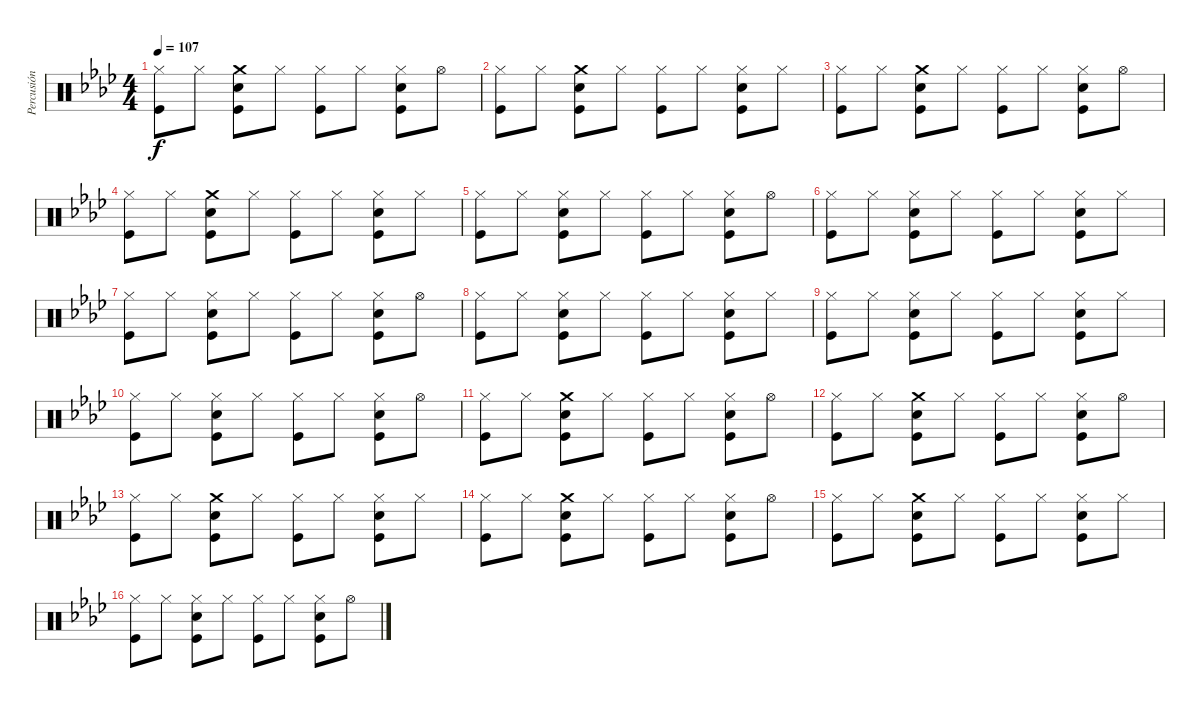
\track ("Percusión" "Percusión") {instrument percussion}
\staff {score}
\articulation defaults
\ts (4 4)
\tempo 107
\clef neutral
\ks ab
("Hi-Hat (closed)" "Kick (hit)").8{dy f} "Hi-Hat (closed)".8 ("Crash medium (hit)" "Snare (hit) 2" "Kick (hit)").8 "Hi-Hat (closed)".8 ("Hi-Hat (closed)" "Kick (hit)").8 "Hi-Hat (closed)".8 ("Hi-Hat (closed)" "Snare (hit) 2" "Kick (hit)").8 "Hi-Hat (open)".8 |
("Hi-Hat (closed)" "Kick (hit)").8 "Hi-Hat (closed)".8 ("Crash medium (hit)" "Snare (hit) 2" "Kick (hit)").8 "Hi-Hat (closed)".8 ("Hi-Hat (closed)" "Kick (hit)").8 "Hi-Hat (closed)".8 ("Hi-Hat (closed)" "Snare (hit) 2" "Kick (hit)").8 "Hi-Hat (closed)".8 |
("Hi-Hat (closed)" "Kick (hit)").8 "Hi-Hat (closed)".8 ("Crash medium (hit)" "Snare (hit) 2" "Kick (hit)").8 "Hi-Hat (closed)".8 ("Hi-Hat (closed)" "Kick (hit)").8 "Hi-Hat (closed)".8 ("Hi-Hat (closed)" "Snare (hit) 2" "Kick (hit)").8 "Hi-Hat (open)".8 |
("Hi-Hat (closed)" "Kick (hit)").8 "Hi-Hat (closed)".8 ("Crash medium (hit)" "Snare (hit) 2" "Kick (hit)").8 "Hi-Hat (closed)".8 ("Hi-Hat (closed)" "Kick (hit)").8 "Hi-Hat (closed)".8 ("Hi-Hat (closed)" "Snare (hit) 2" "Kick (hit)").8 "Hi-Hat (closed)".8 |
("Hi-Hat (closed)" "Kick (hit)").8 "Hi-Hat (closed)".8 ("Hi-Hat (closed)" "Snare (hit) 2" "Kick (hit)").8 "Hi-Hat (closed)".8 ("Hi-Hat (closed)" "Kick (hit)").8 "Hi-Hat (closed)".8 ("Hi-Hat (closed)" "Snare (hit) 2" "Kick (hit)").8 "Hi-Hat (open)".8 |
("Hi-Hat (closed)" "Kick (hit)").8 "Hi-Hat (closed)".8 ("Hi-Hat (closed)" "Snare (hit) 2" "Kick (hit)").8 "Hi-Hat (closed)".8 ("Hi-Hat (closed)" "Kick (hit)").8 "Hi-Hat (closed)".8 ("Hi-Hat (closed)" "Snare (hit) 2" "Kick (hit)").8 "Hi-Hat (closed)".8 |
("Hi-Hat (closed)" "Kick (hit)").8 "Hi-Hat (closed)".8 ("Hi-Hat (closed)" "Snare (hit) 2" "Kick (hit)").8 "Hi-Hat (closed)".8 ("Hi-Hat (closed)" "Kick (hit)").8 "Hi-Hat (closed)".8 ("Hi-Hat (closed)" "Snare (hit) 2" "Kick (hit)").8 "Hi-Hat (open)".8 |
("Hi-Hat (closed)" "Kick (hit)").8 "Hi-Hat (closed)".8 ("Hi-Hat (closed)" "Snare (hit) 2" "Kick (hit)").8 "Hi-Hat (closed)".8 ("Hi-Hat (closed)" "Kick (hit)").8 "Hi-Hat (closed)".8 ("Hi-Hat (closed)" "Snare (hit) 2" "Kick (hit)").8 "Hi-Hat (closed)".8 |
("Hi-Hat (closed)" "Kick (hit)").8 "Hi-Hat (closed)".8 ("Hi-Hat (closed)" "Snare (hit) 2" "Kick (hit)").8 "Hi-Hat (closed)".8 ("Hi-Hat (closed)" "Kick (hit)").8 "Hi-Hat (closed)".8 ("Hi-Hat (closed)" "Snare (hit) 2" "Kick (hit)").8 "Hi-Hat (closed)".8 |
("Hi-Hat (closed)" "Kick (hit)").8 "Hi-Hat (closed)".8 ("Hi-Hat (closed)" "Snare (hit) 2" "Kick (hit)").8 "Hi-Hat (closed)".8 ("Hi-Hat (closed)" "Kick (hit)").8 "Hi-Hat (closed)".8 ("Hi-Hat (closed)" "Snare (hit) 2" "Kick (hit)").8 "Hi-Hat (open)".8 |
("Hi-Hat (closed)" "Kick (hit)").8 "Hi-Hat (closed)".8 ("Crash medium (hit)" "Snare (hit) 2" "Kick (hit)").8 "Hi-Hat (closed)".8 ("Hi-Hat (closed)" "Kick (hit)").8 "Hi-Hat (closed)".8 ("Hi-Hat (closed)" "Snare (hit) 2" "Kick (hit)").8 "Hi-Hat (open)".8 |
("Hi-Hat (closed)" "Kick (hit)").8 "Hi-Hat (closed)".8 ("Crash medium (hit)" "Snare (hit) 2" "Kick (hit)").8 "Hi-Hat (closed)".8 ("Hi-Hat (closed)" "Kick (hit)").8 "Hi-Hat (closed)".8 ("Hi-Hat (closed)" "Snare (hit) 2" "Kick (hit)").8 "Hi-Hat (open)".8 |
("Hi-Hat (closed)" "Kick (hit)").8 "Hi-Hat (closed)".8 ("Crash medium (hit)" "Snare (hit) 2" "Kick (hit)").8 "Hi-Hat (closed)".8 ("Hi-Hat (closed)" "Kick (hit)").8 "Hi-Hat (closed)".8 ("Hi-Hat (closed)" "Snare (hit) 2" "Kick (hit)").8 "Hi-Hat (closed)".8 |
("Hi-Hat (closed)" "Kick (hit)").8 "Hi-Hat (closed)".8 ("Crash medium (hit)" "Snare (hit) 2" "Kick (hit)").8 "Hi-Hat (closed)".8 ("Hi-Hat (closed)" "Kick (hit)").8 "Hi-Hat (closed)".8 ("Hi-Hat (closed)" "Snare (hit) 2" "Kick (hit)").8 "Hi-Hat (open)".8 |
("Hi-Hat (closed)" "Kick (hit)").8 "Hi-Hat (closed)".8 ("Crash medium (hit)" "Snare (hit) 2" "Kick (hit)").8 "Hi-Hat (closed)".8 ("Hi-Hat (closed)" "Kick (hit)").8 "Hi-Hat (closed)".8 ("Hi-Hat (closed)" "Snare (hit) 2" "Kick (hit)").8 "Hi-Hat (closed)".8 |
("Hi-Hat (closed)" "Kick (hit)").8 "Hi-Hat (closed)".8 ("Hi-Hat (closed)" "Snare (hit) 2" "Kick (hit)").8 "Hi-Hat (closed)".8 ("Hi-Hat (closed)" "Kick (hit)").8 "Hi-Hat (closed)".8 ("Hi-Hat (closed)" "Snare (hit) 2" "Kick (hit)").8 "Hi-Hat (open)".8
